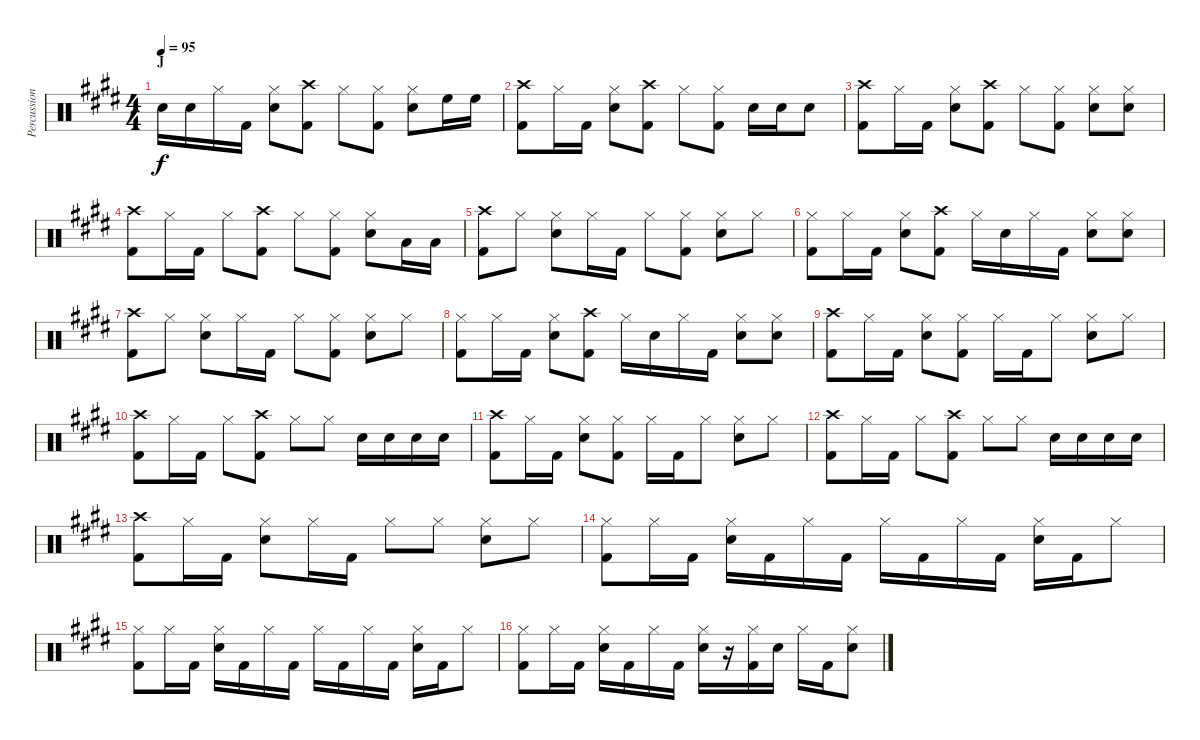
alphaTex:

\track ("Percussion" "Percussion") {instrument percussion}
\staff {score}
\articulation defaults
\ts (4 4)
\section ("" "J")
\tempo 95
\clef neutral
\ks e "Snare (hit) 2".16{dy f} "Snare (hit) 2".16 "Hi-Hat (closed)".16 "Kick (hit) 2".16
("Hi-Hat (closed)" "Snare (hit) 2").8 ("Crash high (hit)" "Kick (hit) 2").8 "Hi-Hat (closed)".8 ("Hi-Hat (closed)" "Kick (hit) 2").8 ("Hi-Hat (closed)" "Snare (hit) 2").8 "High Floor Tom (hit)".16 "High Floor Tom (hit)".16 |
("Crash high (hit)" "Kick (hit) 2").8 "Hi-Hat (closed)".16 "Kick (hit) 2".16 ("Hi-Hat (closed)" "Snare (hit) 2").8 ("Crash high (hit)" "Kick (hit) 2").8 "Hi-Hat (closed)".8 ("Hi-Hat (closed)" "Kick (hit) 2").8 "Snare (hit) 2".16 "Snare (hit) 2".16 "Snare (hit) 2".8 |
("Crash high (hit)" "Kick (hit) 2").8 "Hi-Hat (closed)".16 "Kick (hit) 2".16 ("Hi-Hat (closed)" "Snare (hit) 2").8 ("Crash high (hit)" "Kick (hit) 2").8 "Hi-Hat (closed)".8 ("Hi-Hat (closed)" "Kick (hit) 2").8 ("Hi-Hat (closed)" "Snare (hit) 2").8 ("Hi-Hat (closed)" "Snare (hit) 2").8 |
("Crash high (hit)" "Kick (hit) 2").8 "Hi-Hat (closed)".16 "Kick (hit) 2".16 "Hi-Hat (closed)".8 ("Crash high (hit)" "Kick (hit) 2").8 "Hi-Hat (closed)".8 ("Hi-Hat (closed)" "Kick (hit) 2").8 ("Hi-Hat (closed)" "Snare (hit) 2").8 "Low Tom (hit)".16 "Low Tom (hit)".16 |
("Crash high (hit)" "Kick (hit) 2").8 "Hi-Hat (closed)".8 ("Hi-Hat (closed)" "Snare (hit) 2").8 "Hi-Hat (closed)".16 "Kick (hit) 2".16 "Hi-Hat (closed)".8 ("Hi-Hat (closed)" "Kick (hit) 2").8 ("Hi-Hat (closed)" "Snare (hit) 2").8 "Hi-Hat (closed)".8 |
("Hi-Hat (closed)" "Kick (hit) 2").8 "Hi-Hat (closed)".16 "Kick (hit) 2".16 ("Hi-Hat (closed)" "Snare (hit) 2").8 ("Crash high (hit)" "Kick (hit) 2").8 "Hi-Hat (closed)".16 "Snare (hit) 2".16 "Hi-Hat (closed)".16 "Kick (hit) 2".16 ("Hi-Hat (closed)" "Snare (hit) 2").8 ("Hi-Hat (closed)" "Snare (hit) 2").8 |
("Crash high (hit)" "Kick (hit) 2").8 "Hi-Hat (closed)".8 ("Hi-Hat (closed)" "Snare (hit) 2").8 "Hi-Hat (closed)".16 "Kick (hit) 2".16 "Hi-Hat (closed)".8 ("Hi-Hat (closed)" "Kick (hit) 2").8 ("Hi-Hat (closed)" "Snare (hit) 2").8 "Hi-Hat (closed)".8 |
("Hi-Hat (closed)" "Kick (hit) 2").8 "Hi-Hat (closed)".16 "Kick (hit) 2".16 ("Hi-Hat (closed)" "Snare (hit) 2").8 ("Crash high (hit)" "Kick (hit) 2").8 "Hi-Hat (closed)".16 "Snare (hit) 2".16 "Hi-Hat (closed)".16 "Kick (hit) 2".16 ("Hi-Hat (closed)" "Snare (hit) 2").8 ("Hi-Hat (closed)" "Snare (hit) 2").8 |
("Crash high (hit)" "Kick (hit) 2").8 "Hi-Hat (closed)".16 "Kick (hit) 2".16 ("Hi-Hat (closed)" "Snare (hit) 2").8 ("Hi-Hat (closed)" "Kick (hit) 2").8 "Hi-Hat (closed)".16 "Kick (hit) 2".16 "Hi-Hat (closed)".8 ("Hi-Hat (closed)" "Snare (hit) 2").8 "Hi-Hat (closed)".8 |
("Crash high (hit)" "Kick (hit) 2").8 "Hi-Hat (closed)".16 "Kick (hit) 2".16 "Hi-Hat (closed)".8 ("Crash high (hit)" "Kick (hit) 2").8 "Hi-Hat (closed)".8 "Hi-Hat (closed)".8 "Snare (hit) 2".16 "Snare (hit) 2".16 "Snare (hit) 2".16 "Snare (hit) 2".16 |
("Crash high (hit)" "Kick (hit) 2").8 "Hi-Hat (closed)".16 "Kick (hit) 2".16 ("Hi-Hat (closed)" "Snare (hit) 2").8 ("Hi-Hat (closed)" "Kick (hit) 2").8 "Hi-Hat (closed)".16 "Kick (hit) 2".16 "Hi-Hat (closed)".8 ("Hi-Hat (closed)" "Snare (hit) 2").8 "Hi-Hat (closed)".8 |
("Crash high (hit)" "Kick (hit) 2").8 "Hi-Hat (closed)".16 "Kick (hit) 2".16 "Hi-Hat (closed)".8 ("Crash high (hit)" "Kick (hit) 2").8 "Hi-Hat (closed)".8 "Hi-Hat (closed)".8 "Snare (hit) 2".16 "Snare (hit) 2".16 "Snare (hit) 2".16 "Snare (hit) 2".16 |
("Crash high (hit)" "Kick (hit) 2").8 "Hi-Hat (closed)".16 "Kick (hit) 2".16 ("Hi-Hat (closed)" "Snare (hit) 2").8 "Hi-Hat (closed)".16 "Kick (hit) 2".16 "Hi-Hat (closed)".8 "Hi-Hat (closed)".8 ("Hi-Hat (closed)" "Snare (hit) 2").8 "Hi-Hat (closed)".8 |
("Hi-Hat (closed)" "Kick (hit) 2").8 "Hi-Hat (closed)".16 "Kick (hit) 2".16 ("Hi-Hat (closed)" "Snare (hit) 2").16 "Kick (hit) 2".16 "Hi-Hat (closed)".16 "Kick (hit) 2".16 "Hi-Hat (closed)".16 "Kick (hit) 2".16 "Hi-Hat (closed)".16 "Kick (hit) 2".16 ("Hi-Hat (closed)" "Snare (hit) 2").16 "Kick (hit) 2".16 "Hi-Hat (closed)".8 |
("Hi-Hat (closed)" "Kick (hit) 2").8 "Hi-Hat (closed)".16 "Kick (hit) 2".16 ("Hi-Hat (closed)" "Snare (hit) 2").16 "Kick (hit) 2".16 "Hi-Hat (closed)".16 "Kick (hit) 2".16 "Hi-Hat (closed)".16 "Kick (hit) 2".16 "Hi-Hat (closed)".16 "Kick (hit) 2".16 ("Hi-Hat (closed)" "Snare (hit) 2").16 "Kick (hit) 2".16 "Hi-Hat (closed)".8 |
("Hi-Hat (closed)" "Kick (hit) 2").8 "Hi-Hat (closed)".16 "Kick (hit) 2".16 ("Hi-Hat (closed)" "Snare (hit) 2").16 "Kick (hit) 2".16 "Hi-Hat (closed)".16 "Kick (hit) 2".16 ("Hi-Hat (closed)" "Snare (hit) 2").16 r.16 ("Hi-Hat (closed)" "Kick (hit) 2").16 "Snare (hit) 2".16 "Hi-Hat (closed)".16 "Kick (hit) 2".16 ("Hi-Hat (closed)" "Snare (hit) 2").8
